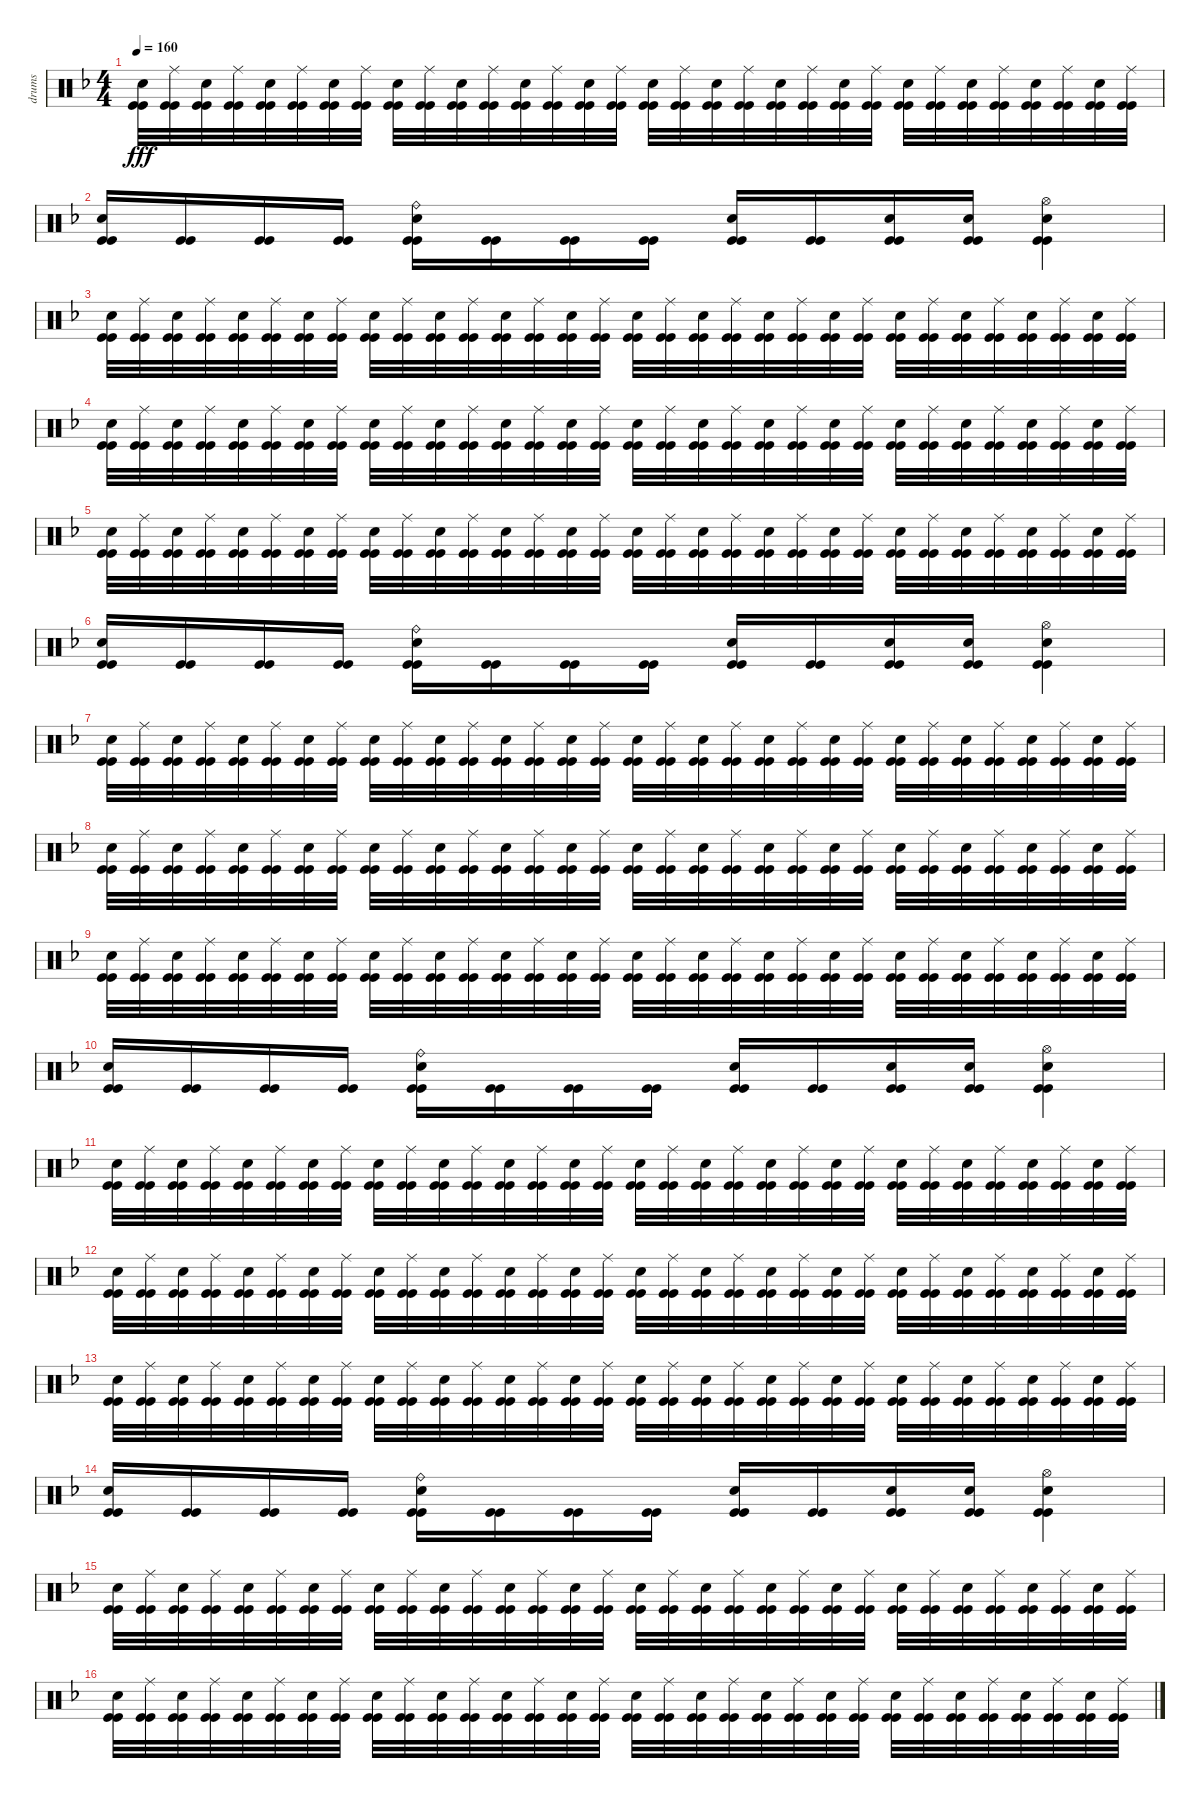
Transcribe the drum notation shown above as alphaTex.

\track ("drums" "drums") {instrument percussion}
\staff {score}
\articulation defaults
\ts (4 4)
\tempo 160
\clef neutral
\ks dminor
("Kick (hit)" "Kick (hit)" "Electric Snare (hit)").32{dy fff} ("Kick (hit)" "Kick (hit)" "Ride (middle)").32 ("Kick (hit)" "Kick (hit)" "Electric Snare (hit)").32 ("Kick (hit)" "Kick (hit)" "Ride (middle)").32 ("Kick (hit)" "Kick (hit)" "Electric Snare (hit)").32 ("Kick (hit)" "Kick (hit)" "Ride (middle)").32 ("Kick (hit)" "Kick (hit)" "Electric Snare (hit)").32 ("Kick (hit)" "Kick (hit)" "Ride (middle)").32 ("Kick (hit)" "Kick (hit)" "Electric Snare (hit)").32 ("Kick (hit)" "Kick (hit)" "Ride (middle)").32 ("Kick (hit)" "Kick (hit)" "Electric Snare (hit)").32 ("Kick (hit)" "Kick (hit)" "Ride (middle)").32 ("Kick (hit)" "Kick (hit)" "Electric Snare (hit)").32 ("Kick (hit)" "Kick (hit)" "Ride (middle)").32 ("Kick (hit)" "Kick (hit)" "Electric Snare (hit)").32 ("Kick (hit)" "Kick (hit)" "Ride (middle)").32 ("Kick (hit)" "Kick (hit)" "Electric Snare (hit)").32 ("Kick (hit)" "Kick (hit)" "Ride (middle)").32 ("Kick (hit)" "Kick (hit)" "Electric Snare (hit)").32 ("Kick (hit)" "Kick (hit)" "Ride (middle)").32 ("Kick (hit)" "Kick (hit)" "Electric Snare (hit)").32 ("Kick (hit)" "Kick (hit)" "Ride (middle)").32 ("Kick (hit)" "Kick (hit)" "Electric Snare (hit)").32 ("Kick (hit)" "Kick (hit)" "Ride (middle)").32 ("Kick (hit)" "Kick (hit)" "Electric Snare (hit)").32 ("Kick (hit)" "Kick (hit)" "Ride (middle)").32 ("Kick (hit)" "Kick (hit)" "Electric Snare (hit)").32 ("Kick (hit)" "Kick (hit)" "Ride (middle)").32 ("Kick (hit)" "Kick (hit)" "Electric Snare (hit)").32 ("Kick (hit)" "Kick (hit)" "Ride (middle)").32 ("Kick (hit)" "Kick (hit)" "Electric Snare (hit)").32 ("Kick (hit)" "Kick (hit)" "Ride (middle)").32 |
("Kick (hit)" "Kick (hit)" "Electric Snare (hit)").16 ("Kick (hit)" "Kick (hit)").16 ("Kick (hit)" "Kick (hit)").16 ("Kick (hit)" "Kick (hit)").16 ("Kick (hit)" "Kick (hit)" "Electric Snare (hit)" "Ride (bell)").16 ("Kick (hit)" "Kick (hit)").16 ("Kick (hit)" "Kick (hit)").16 ("Kick (hit)" "Kick (hit)").16 ("Kick (hit)" "Kick (hit)" "Electric Snare (hit)").16 ("Kick (hit)" "Kick (hit)").16 ("Kick (hit)" "Kick (hit)" "Electric Snare (hit)").16 ("Kick (hit)" "Kick (hit)" "Electric Snare (hit)").16 ("Kick (hit)" "Kick (hit)" "Electric Snare (hit)" "Hi-Hat (open)").4 |
("Kick (hit)" "Kick (hit)" "Electric Snare (hit)").32 ("Kick (hit)" "Kick (hit)" "Ride (middle)").32 ("Kick (hit)" "Kick (hit)" "Electric Snare (hit)").32 ("Kick (hit)" "Kick (hit)" "Ride (middle)").32 ("Kick (hit)" "Kick (hit)" "Electric Snare (hit)").32 ("Kick (hit)" "Kick (hit)" "Ride (middle)").32 ("Kick (hit)" "Kick (hit)" "Electric Snare (hit)").32 ("Kick (hit)" "Kick (hit)" "Ride (middle)").32 ("Kick (hit)" "Kick (hit)" "Electric Snare (hit)").32 ("Kick (hit)" "Kick (hit)" "Ride (middle)").32 ("Kick (hit)" "Kick (hit)" "Electric Snare (hit)").32 ("Kick (hit)" "Kick (hit)" "Ride (middle)").32 ("Kick (hit)" "Kick (hit)" "Electric Snare (hit)").32 ("Kick (hit)" "Kick (hit)" "Ride (middle)").32 ("Kick (hit)" "Kick (hit)" "Electric Snare (hit)").32 ("Kick (hit)" "Kick (hit)" "Ride (middle)").32 ("Kick (hit)" "Kick (hit)" "Electric Snare (hit)").32 ("Kick (hit)" "Kick (hit)" "Ride (middle)").32 ("Kick (hit)" "Kick (hit)" "Electric Snare (hit)").32 ("Kick (hit)" "Kick (hit)" "Ride (middle)").32 ("Kick (hit)" "Kick (hit)" "Electric Snare (hit)").32 ("Kick (hit)" "Kick (hit)" "Ride (middle)").32 ("Kick (hit)" "Kick (hit)" "Electric Snare (hit)").32 ("Kick (hit)" "Kick (hit)" "Ride (middle)").32 ("Kick (hit)" "Kick (hit)" "Electric Snare (hit)").32 ("Kick (hit)" "Kick (hit)" "Ride (middle)").32 ("Kick (hit)" "Kick (hit)" "Electric Snare (hit)").32 ("Kick (hit)" "Kick (hit)" "Ride (middle)").32 ("Kick (hit)" "Kick (hit)" "Electric Snare (hit)").32 ("Kick (hit)" "Kick (hit)" "Ride (middle)").32 ("Kick (hit)" "Kick (hit)" "Electric Snare (hit)").32 ("Kick (hit)" "Kick (hit)" "Ride (middle)").32 |
("Kick (hit)" "Kick (hit)" "Electric Snare (hit)").32 ("Kick (hit)" "Kick (hit)" "Ride (middle)").32 ("Kick (hit)" "Kick (hit)" "Electric Snare (hit)").32 ("Kick (hit)" "Kick (hit)" "Ride (middle)").32 ("Kick (hit)" "Kick (hit)" "Electric Snare (hit)").32 ("Kick (hit)" "Kick (hit)" "Ride (middle)").32 ("Kick (hit)" "Kick (hit)" "Electric Snare (hit)").32 ("Kick (hit)" "Kick (hit)" "Ride (middle)").32 ("Kick (hit)" "Kick (hit)" "Electric Snare (hit)").32 ("Kick (hit)" "Kick (hit)" "Ride (middle)").32 ("Kick (hit)" "Kick (hit)" "Electric Snare (hit)").32 ("Kick (hit)" "Kick (hit)" "Ride (middle)").32 ("Kick (hit)" "Kick (hit)" "Electric Snare (hit)").32 ("Kick (hit)" "Kick (hit)" "Ride (middle)").32 ("Kick (hit)" "Kick (hit)" "Electric Snare (hit)").32 ("Kick (hit)" "Kick (hit)" "Ride (middle)").32 ("Kick (hit)" "Kick (hit)" "Electric Snare (hit)").32 ("Kick (hit)" "Kick (hit)" "Ride (middle)").32 ("Kick (hit)" "Kick (hit)" "Electric Snare (hit)").32 ("Kick (hit)" "Kick (hit)" "Ride (middle)").32 ("Kick (hit)" "Kick (hit)" "Electric Snare (hit)").32 ("Kick (hit)" "Kick (hit)" "Ride (middle)").32 ("Kick (hit)" "Kick (hit)" "Electric Snare (hit)").32 ("Kick (hit)" "Kick (hit)" "Ride (middle)").32 ("Kick (hit)" "Kick (hit)" "Electric Snare (hit)").32 ("Kick (hit)" "Kick (hit)" "Ride (middle)").32 ("Kick (hit)" "Kick (hit)" "Electric Snare (hit)").32 ("Kick (hit)" "Kick (hit)" "Ride (middle)").32 ("Kick (hit)" "Kick (hit)" "Electric Snare (hit)").32 ("Kick (hit)" "Kick (hit)" "Ride (middle)").32 ("Kick (hit)" "Kick (hit)" "Electric Snare (hit)").32 ("Kick (hit)" "Kick (hit)" "Ride (middle)").32 |
("Kick (hit)" "Kick (hit)" "Electric Snare (hit)").32 ("Kick (hit)" "Kick (hit)" "Ride (middle)").32 ("Kick (hit)" "Kick (hit)" "Electric Snare (hit)").32 ("Kick (hit)" "Kick (hit)" "Ride (middle)").32 ("Kick (hit)" "Kick (hit)" "Electric Snare (hit)").32 ("Kick (hit)" "Kick (hit)" "Ride (middle)").32 ("Kick (hit)" "Kick (hit)" "Electric Snare (hit)").32 ("Kick (hit)" "Kick (hit)" "Ride (middle)").32 ("Kick (hit)" "Kick (hit)" "Electric Snare (hit)").32 ("Kick (hit)" "Kick (hit)" "Ride (middle)").32 ("Kick (hit)" "Kick (hit)" "Electric Snare (hit)").32 ("Kick (hit)" "Kick (hit)" "Ride (middle)").32 ("Kick (hit)" "Kick (hit)" "Electric Snare (hit)").32 ("Kick (hit)" "Kick (hit)" "Ride (middle)").32 ("Kick (hit)" "Kick (hit)" "Electric Snare (hit)").32 ("Kick (hit)" "Kick (hit)" "Ride (middle)").32 ("Kick (hit)" "Kick (hit)" "Electric Snare (hit)").32 ("Kick (hit)" "Kick (hit)" "Ride (middle)").32 ("Kick (hit)" "Kick (hit)" "Electric Snare (hit)").32 ("Kick (hit)" "Kick (hit)" "Ride (middle)").32 ("Kick (hit)" "Kick (hit)" "Electric Snare (hit)").32 ("Kick (hit)" "Kick (hit)" "Ride (middle)").32 ("Kick (hit)" "Kick (hit)" "Electric Snare (hit)").32 ("Kick (hit)" "Kick (hit)" "Ride (middle)").32 ("Kick (hit)" "Kick (hit)" "Electric Snare (hit)").32 ("Kick (hit)" "Kick (hit)" "Ride (middle)").32 ("Kick (hit)" "Kick (hit)" "Electric Snare (hit)").32 ("Kick (hit)" "Kick (hit)" "Ride (middle)").32 ("Kick (hit)" "Kick (hit)" "Electric Snare (hit)").32 ("Kick (hit)" "Kick (hit)" "Ride (middle)").32 ("Kick (hit)" "Kick (hit)" "Electric Snare (hit)").32 ("Kick (hit)" "Kick (hit)" "Ride (middle)").32 |
("Kick (hit)" "Kick (hit)" "Electric Snare (hit)").16 ("Kick (hit)" "Kick (hit)").16 ("Kick (hit)" "Kick (hit)").16 ("Kick (hit)" "Kick (hit)").16 ("Kick (hit)" "Kick (hit)" "Electric Snare (hit)" "Ride (bell)").16 ("Kick (hit)" "Kick (hit)").16 ("Kick (hit)" "Kick (hit)").16 ("Kick (hit)" "Kick (hit)").16 ("Kick (hit)" "Kick (hit)" "Electric Snare (hit)").16 ("Kick (hit)" "Kick (hit)").16 ("Kick (hit)" "Kick (hit)" "Electric Snare (hit)").16 ("Kick (hit)" "Kick (hit)" "Electric Snare (hit)").16 ("Kick (hit)" "Kick (hit)" "Electric Snare (hit)" "Hi-Hat (open)").4 |
("Kick (hit)" "Kick (hit)" "Electric Snare (hit)").32 ("Kick (hit)" "Kick (hit)" "Ride (middle)").32 ("Kick (hit)" "Kick (hit)" "Electric Snare (hit)").32 ("Kick (hit)" "Kick (hit)" "Ride (middle)").32 ("Kick (hit)" "Kick (hit)" "Electric Snare (hit)").32 ("Kick (hit)" "Kick (hit)" "Ride (middle)").32 ("Kick (hit)" "Kick (hit)" "Electric Snare (hit)").32 ("Kick (hit)" "Kick (hit)" "Ride (middle)").32 ("Kick (hit)" "Kick (hit)" "Electric Snare (hit)").32 ("Kick (hit)" "Kick (hit)" "Ride (middle)").32 ("Kick (hit)" "Kick (hit)" "Electric Snare (hit)").32 ("Kick (hit)" "Kick (hit)" "Ride (middle)").32 ("Kick (hit)" "Kick (hit)" "Electric Snare (hit)").32 ("Kick (hit)" "Kick (hit)" "Ride (middle)").32 ("Kick (hit)" "Kick (hit)" "Electric Snare (hit)").32 ("Kick (hit)" "Kick (hit)" "Ride (middle)").32 ("Kick (hit)" "Kick (hit)" "Electric Snare (hit)").32 ("Kick (hit)" "Kick (hit)" "Ride (middle)").32 ("Kick (hit)" "Kick (hit)" "Electric Snare (hit)").32 ("Kick (hit)" "Kick (hit)" "Ride (middle)").32 ("Kick (hit)" "Kick (hit)" "Electric Snare (hit)").32 ("Kick (hit)" "Kick (hit)" "Ride (middle)").32 ("Kick (hit)" "Kick (hit)" "Electric Snare (hit)").32 ("Kick (hit)" "Kick (hit)" "Ride (middle)").32 ("Kick (hit)" "Kick (hit)" "Electric Snare (hit)").32 ("Kick (hit)" "Kick (hit)" "Ride (middle)").32 ("Kick (hit)" "Kick (hit)" "Electric Snare (hit)").32 ("Kick (hit)" "Kick (hit)" "Ride (middle)").32 ("Kick (hit)" "Kick (hit)" "Electric Snare (hit)").32 ("Kick (hit)" "Kick (hit)" "Ride (middle)").32 ("Kick (hit)" "Kick (hit)" "Electric Snare (hit)").32 ("Kick (hit)" "Kick (hit)" "Ride (middle)").32 |
("Kick (hit)" "Kick (hit)" "Electric Snare (hit)").32 ("Kick (hit)" "Kick (hit)" "Ride (middle)").32 ("Kick (hit)" "Kick (hit)" "Electric Snare (hit)").32 ("Kick (hit)" "Kick (hit)" "Ride (middle)").32 ("Kick (hit)" "Kick (hit)" "Electric Snare (hit)").32 ("Kick (hit)" "Kick (hit)" "Ride (middle)").32 ("Kick (hit)" "Kick (hit)" "Electric Snare (hit)").32 ("Kick (hit)" "Kick (hit)" "Ride (middle)").32 ("Kick (hit)" "Kick (hit)" "Electric Snare (hit)").32 ("Kick (hit)" "Kick (hit)" "Ride (middle)").32 ("Kick (hit)" "Kick (hit)" "Electric Snare (hit)").32 ("Kick (hit)" "Kick (hit)" "Ride (middle)").32 ("Kick (hit)" "Kick (hit)" "Electric Snare (hit)").32 ("Kick (hit)" "Kick (hit)" "Ride (middle)").32 ("Kick (hit)" "Kick (hit)" "Electric Snare (hit)").32 ("Kick (hit)" "Kick (hit)" "Ride (middle)").32 ("Kick (hit)" "Kick (hit)" "Electric Snare (hit)").32 ("Kick (hit)" "Kick (hit)" "Ride (middle)").32 ("Kick (hit)" "Kick (hit)" "Electric Snare (hit)").32 ("Kick (hit)" "Kick (hit)" "Ride (middle)").32 ("Kick (hit)" "Kick (hit)" "Electric Snare (hit)").32 ("Kick (hit)" "Kick (hit)" "Ride (middle)").32 ("Kick (hit)" "Kick (hit)" "Electric Snare (hit)").32 ("Kick (hit)" "Kick (hit)" "Ride (middle)").32 ("Kick (hit)" "Kick (hit)" "Electric Snare (hit)").32 ("Kick (hit)" "Kick (hit)" "Ride (middle)").32 ("Kick (hit)" "Kick (hit)" "Electric Snare (hit)").32 ("Kick (hit)" "Kick (hit)" "Ride (middle)").32 ("Kick (hit)" "Kick (hit)" "Electric Snare (hit)").32 ("Kick (hit)" "Kick (hit)" "Ride (middle)").32 ("Kick (hit)" "Kick (hit)" "Electric Snare (hit)").32 ("Kick (hit)" "Kick (hit)" "Ride (middle)").32 |
("Kick (hit)" "Kick (hit)" "Electric Snare (hit)").32 ("Kick (hit)" "Kick (hit)" "Ride (middle)").32 ("Kick (hit)" "Kick (hit)" "Electric Snare (hit)").32 ("Kick (hit)" "Kick (hit)" "Ride (middle)").32 ("Kick (hit)" "Kick (hit)" "Electric Snare (hit)").32 ("Kick (hit)" "Kick (hit)" "Ride (middle)").32 ("Kick (hit)" "Kick (hit)" "Electric Snare (hit)").32 ("Kick (hit)" "Kick (hit)" "Ride (middle)").32 ("Kick (hit)" "Kick (hit)" "Electric Snare (hit)").32 ("Kick (hit)" "Kick (hit)" "Ride (middle)").32 ("Kick (hit)" "Kick (hit)" "Electric Snare (hit)").32 ("Kick (hit)" "Kick (hit)" "Ride (middle)").32 ("Kick (hit)" "Kick (hit)" "Electric Snare (hit)").32 ("Kick (hit)" "Kick (hit)" "Ride (middle)").32 ("Kick (hit)" "Kick (hit)" "Electric Snare (hit)").32 ("Kick (hit)" "Kick (hit)" "Ride (middle)").32 ("Kick (hit)" "Kick (hit)" "Electric Snare (hit)").32 ("Kick (hit)" "Kick (hit)" "Ride (middle)").32 ("Kick (hit)" "Kick (hit)" "Electric Snare (hit)").32 ("Kick (hit)" "Kick (hit)" "Ride (middle)").32 ("Kick (hit)" "Kick (hit)" "Electric Snare (hit)").32 ("Kick (hit)" "Kick (hit)" "Ride (middle)").32 ("Kick (hit)" "Kick (hit)" "Electric Snare (hit)").32 ("Kick (hit)" "Kick (hit)" "Ride (middle)").32 ("Kick (hit)" "Kick (hit)" "Electric Snare (hit)").32 ("Kick (hit)" "Kick (hit)" "Ride (middle)").32 ("Kick (hit)" "Kick (hit)" "Electric Snare (hit)").32 ("Kick (hit)" "Kick (hit)" "Ride (middle)").32 ("Kick (hit)" "Kick (hit)" "Electric Snare (hit)").32 ("Kick (hit)" "Kick (hit)" "Ride (middle)").32 ("Kick (hit)" "Kick (hit)" "Electric Snare (hit)").32 ("Kick (hit)" "Kick (hit)" "Ride (middle)").32 |
("Kick (hit)" "Kick (hit)" "Electric Snare (hit)").16 ("Kick (hit)" "Kick (hit)").16 ("Kick (hit)" "Kick (hit)").16 ("Kick (hit)" "Kick (hit)").16 ("Kick (hit)" "Kick (hit)" "Electric Snare (hit)" "Ride (bell)").16 ("Kick (hit)" "Kick (hit)").16 ("Kick (hit)" "Kick (hit)").16 ("Kick (hit)" "Kick (hit)").16 ("Kick (hit)" "Kick (hit)" "Electric Snare (hit)").16 ("Kick (hit)" "Kick (hit)").16 ("Kick (hit)" "Kick (hit)" "Electric Snare (hit)").16 ("Kick (hit)" "Kick (hit)" "Electric Snare (hit)").16 ("Kick (hit)" "Kick (hit)" "Electric Snare (hit)" "Hi-Hat (open)").4 |
("Kick (hit)" "Kick (hit)" "Electric Snare (hit)").32 ("Kick (hit)" "Kick (hit)" "Ride (middle)").32 ("Kick (hit)" "Kick (hit)" "Electric Snare (hit)").32 ("Kick (hit)" "Kick (hit)" "Ride (middle)").32 ("Kick (hit)" "Kick (hit)" "Electric Snare (hit)").32 ("Kick (hit)" "Kick (hit)" "Ride (middle)").32 ("Kick (hit)" "Kick (hit)" "Electric Snare (hit)").32 ("Kick (hit)" "Kick (hit)" "Ride (middle)").32 ("Kick (hit)" "Kick (hit)" "Electric Snare (hit)").32 ("Kick (hit)" "Kick (hit)" "Ride (middle)").32 ("Kick (hit)" "Kick (hit)" "Electric Snare (hit)").32 ("Kick (hit)" "Kick (hit)" "Ride (middle)").32 ("Kick (hit)" "Kick (hit)" "Electric Snare (hit)").32 ("Kick (hit)" "Kick (hit)" "Ride (middle)").32 ("Kick (hit)" "Kick (hit)" "Electric Snare (hit)").32 ("Kick (hit)" "Kick (hit)" "Ride (middle)").32 ("Kick (hit)" "Kick (hit)" "Electric Snare (hit)").32 ("Kick (hit)" "Kick (hit)" "Ride (middle)").32 ("Kick (hit)" "Kick (hit)" "Electric Snare (hit)").32 ("Kick (hit)" "Kick (hit)" "Ride (middle)").32 ("Kick (hit)" "Kick (hit)" "Electric Snare (hit)").32 ("Kick (hit)" "Kick (hit)" "Ride (middle)").32 ("Kick (hit)" "Kick (hit)" "Electric Snare (hit)").32 ("Kick (hit)" "Kick (hit)" "Ride (middle)").32 ("Kick (hit)" "Kick (hit)" "Electric Snare (hit)").32 ("Kick (hit)" "Kick (hit)" "Ride (middle)").32 ("Kick (hit)" "Kick (hit)" "Electric Snare (hit)").32 ("Kick (hit)" "Kick (hit)" "Ride (middle)").32 ("Kick (hit)" "Kick (hit)" "Electric Snare (hit)").32 ("Kick (hit)" "Kick (hit)" "Ride (middle)").32 ("Kick (hit)" "Kick (hit)" "Electric Snare (hit)").32 ("Kick (hit)" "Kick (hit)" "Ride (middle)").32 |
("Kick (hit)" "Kick (hit)" "Electric Snare (hit)").32 ("Kick (hit)" "Kick (hit)" "Ride (middle)").32 ("Kick (hit)" "Kick (hit)" "Electric Snare (hit)").32 ("Kick (hit)" "Kick (hit)" "Ride (middle)").32 ("Kick (hit)" "Kick (hit)" "Electric Snare (hit)").32 ("Kick (hit)" "Kick (hit)" "Ride (middle)").32 ("Kick (hit)" "Kick (hit)" "Electric Snare (hit)").32 ("Kick (hit)" "Kick (hit)" "Ride (middle)").32 ("Kick (hit)" "Kick (hit)" "Electric Snare (hit)").32 ("Kick (hit)" "Kick (hit)" "Ride (middle)").32 ("Kick (hit)" "Kick (hit)" "Electric Snare (hit)").32 ("Kick (hit)" "Kick (hit)" "Ride (middle)").32 ("Kick (hit)" "Kick (hit)" "Electric Snare (hit)").32 ("Kick (hit)" "Kick (hit)" "Ride (middle)").32 ("Kick (hit)" "Kick (hit)" "Electric Snare (hit)").32 ("Kick (hit)" "Kick (hit)" "Ride (middle)").32 ("Kick (hit)" "Kick (hit)" "Electric Snare (hit)").32 ("Kick (hit)" "Kick (hit)" "Ride (middle)").32 ("Kick (hit)" "Kick (hit)" "Electric Snare (hit)").32 ("Kick (hit)" "Kick (hit)" "Ride (middle)").32 ("Kick (hit)" "Kick (hit)" "Electric Snare (hit)").32 ("Kick (hit)" "Kick (hit)" "Ride (middle)").32 ("Kick (hit)" "Kick (hit)" "Electric Snare (hit)").32 ("Kick (hit)" "Kick (hit)" "Ride (middle)").32 ("Kick (hit)" "Kick (hit)" "Electric Snare (hit)").32 ("Kick (hit)" "Kick (hit)" "Ride (middle)").32 ("Kick (hit)" "Kick (hit)" "Electric Snare (hit)").32 ("Kick (hit)" "Kick (hit)" "Ride (middle)").32 ("Kick (hit)" "Kick (hit)" "Electric Snare (hit)").32 ("Kick (hit)" "Kick (hit)" "Ride (middle)").32 ("Kick (hit)" "Kick (hit)" "Electric Snare (hit)").32 ("Kick (hit)" "Kick (hit)" "Ride (middle)").32 |
("Kick (hit)" "Kick (hit)" "Electric Snare (hit)").32 ("Kick (hit)" "Kick (hit)" "Ride (middle)").32 ("Kick (hit)" "Kick (hit)" "Electric Snare (hit)").32 ("Kick (hit)" "Kick (hit)" "Ride (middle)").32 ("Kick (hit)" "Kick (hit)" "Electric Snare (hit)").32 ("Kick (hit)" "Kick (hit)" "Ride (middle)").32 ("Kick (hit)" "Kick (hit)" "Electric Snare (hit)").32 ("Kick (hit)" "Kick (hit)" "Ride (middle)").32 ("Kick (hit)" "Kick (hit)" "Electric Snare (hit)").32 ("Kick (hit)" "Kick (hit)" "Ride (middle)").32 ("Kick (hit)" "Kick (hit)" "Electric Snare (hit)").32 ("Kick (hit)" "Kick (hit)" "Ride (middle)").32 ("Kick (hit)" "Kick (hit)" "Electric Snare (hit)").32 ("Kick (hit)" "Kick (hit)" "Ride (middle)").32 ("Kick (hit)" "Kick (hit)" "Electric Snare (hit)").32 ("Kick (hit)" "Kick (hit)" "Ride (middle)").32 ("Kick (hit)" "Kick (hit)" "Electric Snare (hit)").32 ("Kick (hit)" "Kick (hit)" "Ride (middle)").32 ("Kick (hit)" "Kick (hit)" "Electric Snare (hit)").32 ("Kick (hit)" "Kick (hit)" "Ride (middle)").32 ("Kick (hit)" "Kick (hit)" "Electric Snare (hit)").32 ("Kick (hit)" "Kick (hit)" "Ride (middle)").32 ("Kick (hit)" "Kick (hit)" "Electric Snare (hit)").32 ("Kick (hit)" "Kick (hit)" "Ride (middle)").32 ("Kick (hit)" "Kick (hit)" "Electric Snare (hit)").32 ("Kick (hit)" "Kick (hit)" "Ride (middle)").32 ("Kick (hit)" "Kick (hit)" "Electric Snare (hit)").32 ("Kick (hit)" "Kick (hit)" "Ride (middle)").32 ("Kick (hit)" "Kick (hit)" "Electric Snare (hit)").32 ("Kick (hit)" "Kick (hit)" "Ride (middle)").32 ("Kick (hit)" "Kick (hit)" "Electric Snare (hit)").32 ("Kick (hit)" "Kick (hit)" "Ride (middle)").32 |
("Kick (hit)" "Kick (hit)" "Electric Snare (hit)").16 ("Kick (hit)" "Kick (hit)").16 ("Kick (hit)" "Kick (hit)").16 ("Kick (hit)" "Kick (hit)").16 ("Kick (hit)" "Kick (hit)" "Electric Snare (hit)" "Ride (bell)").16 ("Kick (hit)" "Kick (hit)").16 ("Kick (hit)" "Kick (hit)").16 ("Kick (hit)" "Kick (hit)").16 ("Kick (hit)" "Kick (hit)" "Electric Snare (hit)").16 ("Kick (hit)" "Kick (hit)").16 ("Kick (hit)" "Kick (hit)" "Electric Snare (hit)").16 ("Kick (hit)" "Kick (hit)" "Electric Snare (hit)").16 ("Kick (hit)" "Kick (hit)" "Electric Snare (hit)" "Hi-Hat (open)").4 |
("Kick (hit)" "Kick (hit)" "Electric Snare (hit)").32 ("Kick (hit)" "Kick (hit)" "Ride (middle)").32 ("Kick (hit)" "Kick (hit)" "Electric Snare (hit)").32 ("Kick (hit)" "Kick (hit)" "Ride (middle)").32 ("Kick (hit)" "Kick (hit)" "Electric Snare (hit)").32 ("Kick (hit)" "Kick (hit)" "Ride (middle)").32 ("Kick (hit)" "Kick (hit)" "Electric Snare (hit)").32 ("Kick (hit)" "Kick (hit)" "Ride (middle)").32 ("Kick (hit)" "Kick (hit)" "Electric Snare (hit)").32 ("Kick (hit)" "Kick (hit)" "Ride (middle)").32 ("Kick (hit)" "Kick (hit)" "Electric Snare (hit)").32 ("Kick (hit)" "Kick (hit)" "Ride (middle)").32 ("Kick (hit)" "Kick (hit)" "Electric Snare (hit)").32 ("Kick (hit)" "Kick (hit)" "Ride (middle)").32 ("Kick (hit)" "Kick (hit)" "Electric Snare (hit)").32 ("Kick (hit)" "Kick (hit)" "Ride (middle)").32 ("Kick (hit)" "Kick (hit)" "Electric Snare (hit)").32 ("Kick (hit)" "Kick (hit)" "Ride (middle)").32 ("Kick (hit)" "Kick (hit)" "Electric Snare (hit)").32 ("Kick (hit)" "Kick (hit)" "Ride (middle)").32 ("Kick (hit)" "Kick (hit)" "Electric Snare (hit)").32 ("Kick (hit)" "Kick (hit)" "Ride (middle)").32 ("Kick (hit)" "Kick (hit)" "Electric Snare (hit)").32 ("Kick (hit)" "Kick (hit)" "Ride (middle)").32 ("Kick (hit)" "Kick (hit)" "Electric Snare (hit)").32 ("Kick (hit)" "Kick (hit)" "Ride (middle)").32 ("Kick (hit)" "Kick (hit)" "Electric Snare (hit)").32 ("Kick (hit)" "Kick (hit)" "Ride (middle)").32 ("Kick (hit)" "Kick (hit)" "Electric Snare (hit)").32 ("Kick (hit)" "Kick (hit)" "Ride (middle)").32 ("Kick (hit)" "Kick (hit)" "Electric Snare (hit)").32 ("Kick (hit)" "Kick (hit)" "Ride (middle)").32 |
("Kick (hit)" "Kick (hit)" "Electric Snare (hit)").32 ("Kick (hit)" "Kick (hit)" "Ride (middle)").32 ("Kick (hit)" "Kick (hit)" "Electric Snare (hit)").32 ("Kick (hit)" "Kick (hit)" "Ride (middle)").32 ("Kick (hit)" "Kick (hit)" "Electric Snare (hit)").32 ("Kick (hit)" "Kick (hit)" "Ride (middle)").32 ("Kick (hit)" "Kick (hit)" "Electric Snare (hit)").32 ("Kick (hit)" "Kick (hit)" "Ride (middle)").32 ("Kick (hit)" "Kick (hit)" "Electric Snare (hit)").32 ("Kick (hit)" "Kick (hit)" "Ride (middle)").32 ("Kick (hit)" "Kick (hit)" "Electric Snare (hit)").32 ("Kick (hit)" "Kick (hit)" "Ride (middle)").32 ("Kick (hit)" "Kick (hit)" "Electric Snare (hit)").32 ("Kick (hit)" "Kick (hit)" "Ride (middle)").32 ("Kick (hit)" "Kick (hit)" "Electric Snare (hit)").32 ("Kick (hit)" "Kick (hit)" "Ride (middle)").32 ("Kick (hit)" "Kick (hit)" "Electric Snare (hit)").32 ("Kick (hit)" "Kick (hit)" "Ride (middle)").32 ("Kick (hit)" "Kick (hit)" "Electric Snare (hit)").32 ("Kick (hit)" "Kick (hit)" "Ride (middle)").32 ("Kick (hit)" "Kick (hit)" "Electric Snare (hit)").32 ("Kick (hit)" "Kick (hit)" "Ride (middle)").32 ("Kick (hit)" "Kick (hit)" "Electric Snare (hit)").32 ("Kick (hit)" "Kick (hit)" "Ride (middle)").32 ("Kick (hit)" "Kick (hit)" "Electric Snare (hit)").32 ("Kick (hit)" "Kick (hit)" "Ride (middle)").32 ("Kick (hit)" "Kick (hit)" "Electric Snare (hit)").32 ("Kick (hit)" "Kick (hit)" "Ride (middle)").32 ("Kick (hit)" "Kick (hit)" "Electric Snare (hit)").32 ("Kick (hit)" "Kick (hit)" "Ride (middle)").32 ("Kick (hit)" "Kick (hit)" "Electric Snare (hit)").32 ("Kick (hit)" "Kick (hit)" "Ride (middle)").32
